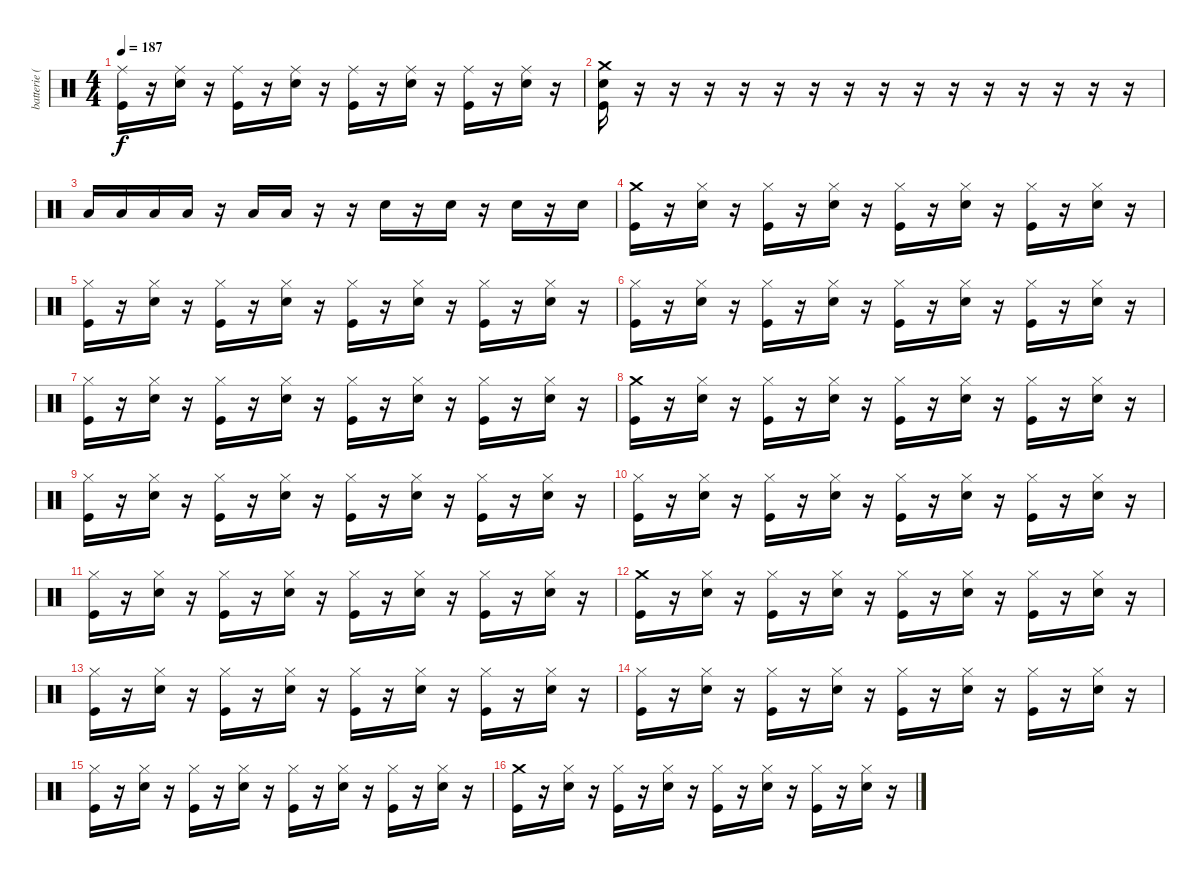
\track ("batterie ( Mike ) " "batterie (") {instrument percussion}
\staff {score}
\articulation defaults
\ts (4 4)
\tempo 187
\clef neutral
\ks c
("Ride (middle)" "Kick (hit)").16{dy f} r.16 ("Ride (middle)" "Snare (hit) 2").16 r.16 ("Ride (middle)" "Kick (hit)").16 r.16 ("Ride (middle)" "Snare (hit) 2").16 r.16 ("Ride (middle)" "Kick (hit)").16 r.16 ("Ride (middle)" "Snare (hit) 2").16 r.16 ("Ride (middle)" "Kick (hit)").16 r.16 ("Ride (middle)" "Snare (hit) 2").16 r.16 |
("Crash medium (hit)" "Snare (hit) 2" "Kick (hit)").16 r.16 r.16 r.16 r.16 r.16 r.16 r.16 r.16 r.16 r.16 r.16 r.16 r.16 r.16 r.16 |
"Low Tom (hit)".16 "Low Tom (hit)".16 "Low Tom (hit)".16 "Low Tom (hit)".16 r.16 "Low Tom (hit)".16 "Low Tom (hit)".16 r.16 r.16 "Snare (hit) 2".16 r.16 "Snare (hit) 2".16 r.16 "Snare (hit) 2".16 r.16 "Snare (hit) 2".16 |
("Crash medium (hit)" "Kick (hit)").16 r.16 ("Hi-Hat (closed)" "Snare (hit) 2").16 r.16 ("Hi-Hat (closed)" "Kick (hit)").16 r.16 ("Hi-Hat (closed)" "Snare (hit) 2").16 r.16 ("Hi-Hat (closed)" "Kick (hit)").16 r.16 ("Hi-Hat (closed)" "Snare (hit) 2").16 r.16 ("Hi-Hat (closed)" "Kick (hit)").16 r.16 ("Hi-Hat (closed)" "Snare (hit) 2").16 r.16 |
("Hi-Hat (closed)" "Kick (hit)").16 r.16 ("Hi-Hat (closed)" "Snare (hit) 2").16 r.16 ("Hi-Hat (closed)" "Kick (hit)").16 r.16 ("Hi-Hat (closed)" "Snare (hit) 2").16 r.16 ("Hi-Hat (closed)" "Kick (hit)").16 r.16 ("Hi-Hat (closed)" "Snare (hit) 2").16 r.16 ("Hi-Hat (closed)" "Kick (hit)").16 r.16 ("Hi-Hat (closed)" "Snare (hit) 2").16 r.16 |
("Hi-Hat (closed)" "Kick (hit)").16 r.16 ("Hi-Hat (closed)" "Snare (hit) 2").16 r.16 ("Hi-Hat (closed)" "Kick (hit)").16 r.16 ("Hi-Hat (closed)" "Snare (hit) 2").16 r.16 ("Hi-Hat (closed)" "Kick (hit)").16 r.16 ("Hi-Hat (closed)" "Snare (hit) 2").16 r.16 ("Hi-Hat (closed)" "Kick (hit)").16 r.16 ("Hi-Hat (closed)" "Snare (hit) 2").16 r.16 |
("Hi-Hat (closed)" "Kick (hit)").16 r.16 ("Hi-Hat (closed)" "Snare (hit) 2").16 r.16 ("Hi-Hat (closed)" "Kick (hit)").16 r.16 ("Hi-Hat (closed)" "Snare (hit) 2").16 r.16 ("Hi-Hat (closed)" "Kick (hit)").16 r.16 ("Hi-Hat (closed)" "Snare (hit) 2").16 r.16 ("Hi-Hat (closed)" "Kick (hit)").16 r.16 ("Hi-Hat (closed)" "Snare (hit) 2").16 r.16 |
("Crash medium (hit)" "Kick (hit)").16 r.16 ("Hi-Hat (closed)" "Snare (hit) 2").16 r.16 ("Hi-Hat (closed)" "Kick (hit)").16 r.16 ("Hi-Hat (closed)" "Snare (hit) 2").16 r.16 ("Hi-Hat (closed)" "Kick (hit)").16 r.16 ("Hi-Hat (closed)" "Snare (hit) 2").16 r.16 ("Hi-Hat (closed)" "Kick (hit)").16 r.16 ("Hi-Hat (closed)" "Snare (hit) 2").16 r.16 |
("Hi-Hat (closed)" "Kick (hit)").16 r.16 ("Hi-Hat (closed)" "Snare (hit) 2").16 r.16 ("Hi-Hat (closed)" "Kick (hit)").16 r.16 ("Hi-Hat (closed)" "Snare (hit) 2").16 r.16 ("Hi-Hat (closed)" "Kick (hit)").16 r.16 ("Hi-Hat (closed)" "Snare (hit) 2").16 r.16 ("Hi-Hat (closed)" "Kick (hit)").16 r.16 ("Hi-Hat (closed)" "Snare (hit) 2").16 r.16 |
("Hi-Hat (closed)" "Kick (hit)").16 r.16 ("Hi-Hat (closed)" "Snare (hit) 2").16 r.16 ("Hi-Hat (closed)" "Kick (hit)").16 r.16 ("Hi-Hat (closed)" "Snare (hit) 2").16 r.16 ("Hi-Hat (closed)" "Kick (hit)").16 r.16 ("Hi-Hat (closed)" "Snare (hit) 2").16 r.16 ("Hi-Hat (closed)" "Kick (hit)").16 r.16 ("Hi-Hat (closed)" "Snare (hit) 2").16 r.16 |
("Hi-Hat (closed)" "Kick (hit)").16 r.16 ("Hi-Hat (closed)" "Snare (hit) 2").16 r.16 ("Hi-Hat (closed)" "Kick (hit)").16 r.16 ("Hi-Hat (closed)" "Snare (hit) 2").16 r.16 ("Hi-Hat (closed)" "Kick (hit)").16 r.16 ("Hi-Hat (closed)" "Snare (hit) 2").16 r.16 ("Hi-Hat (closed)" "Kick (hit)").16 r.16 ("Hi-Hat (closed)" "Snare (hit) 2").16 r.16 |
("Crash medium (hit)" "Kick (hit)").16 r.16 ("Hi-Hat (closed)" "Snare (hit) 2").16 r.16 ("Hi-Hat (closed)" "Kick (hit)").16 r.16 ("Hi-Hat (closed)" "Snare (hit) 2").16 r.16 ("Hi-Hat (closed)" "Kick (hit)").16 r.16 ("Hi-Hat (closed)" "Snare (hit) 2").16 r.16 ("Hi-Hat (closed)" "Kick (hit)").16 r.16 ("Hi-Hat (closed)" "Snare (hit) 2").16 r.16 |
("Hi-Hat (closed)" "Kick (hit)").16 r.16 ("Hi-Hat (closed)" "Snare (hit) 2").16 r.16 ("Hi-Hat (closed)" "Kick (hit)").16 r.16 ("Hi-Hat (closed)" "Snare (hit) 2").16 r.16 ("Hi-Hat (closed)" "Kick (hit)").16 r.16 ("Hi-Hat (closed)" "Snare (hit) 2").16 r.16 ("Hi-Hat (closed)" "Kick (hit)").16 r.16 ("Hi-Hat (closed)" "Snare (hit) 2").16 r.16 |
("Hi-Hat (closed)" "Kick (hit)").16 r.16 ("Hi-Hat (closed)" "Snare (hit) 2").16 r.16 ("Hi-Hat (closed)" "Kick (hit)").16 r.16 ("Hi-Hat (closed)" "Snare (hit) 2").16 r.16 ("Hi-Hat (closed)" "Kick (hit)").16 r.16 ("Hi-Hat (closed)" "Snare (hit) 2").16 r.16 ("Hi-Hat (closed)" "Kick (hit)").16 r.16 ("Hi-Hat (closed)" "Snare (hit) 2").16 r.16 |
("Hi-Hat (closed)" "Kick (hit)").16 r.16 ("Hi-Hat (closed)" "Snare (hit) 2").16 r.16 ("Hi-Hat (closed)" "Kick (hit)").16 r.16 ("Hi-Hat (closed)" "Snare (hit) 2").16 r.16 ("Hi-Hat (closed)" "Kick (hit)").16 r.16 ("Hi-Hat (closed)" "Snare (hit) 2").16 r.16 ("Hi-Hat (closed)" "Kick (hit)").16 r.16 ("Hi-Hat (closed)" "Snare (hit) 2").16 r.16 |
("Crash medium (hit)" "Kick (hit)").16 r.16 ("Hi-Hat (closed)" "Snare (hit) 2").16 r.16 ("Hi-Hat (closed)" "Kick (hit)").16 r.16 ("Hi-Hat (closed)" "Snare (hit) 2").16 r.16 ("Hi-Hat (closed)" "Kick (hit)").16 r.16 ("Hi-Hat (closed)" "Snare (hit) 2").16 r.16 ("Hi-Hat (closed)" "Kick (hit)").16 r.16 ("Hi-Hat (closed)" "Snare (hit) 2").16 r.16
